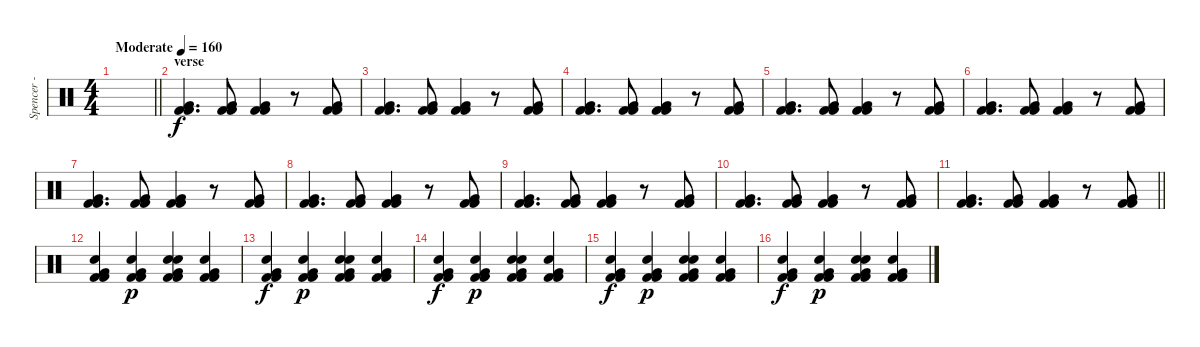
\track ("Spencer - Drums" "Spencer - ") {instrument percussion}
\staff {score}
\articulation defaults
\ts (4 4)
\tempo (160 "Moderate")
\clef neutral
\barLineRight lightlight
\ks c
|
\section ("" "verse")
("Very Low Tom (hit)" "Kick (hit) 2" "Kick (hit) 2").4{d} ("Very Low Tom (hit)" "Kick (hit) 2" "Kick (hit) 2").8 ("Very Low Tom (hit)" "Kick (hit) 2" "Kick (hit) 2").4 r.8 ("Very Low Tom (hit)" "Kick (hit) 2" "Kick (hit) 2").8 |
("Very Low Tom (hit)" "Kick (hit) 2" "Kick (hit) 2").4{d} ("Very Low Tom (hit)" "Kick (hit) 2" "Kick (hit) 2").8 ("Very Low Tom (hit)" "Kick (hit) 2" "Kick (hit) 2").4 r.8 ("Very Low Tom (hit)" "Kick (hit) 2" "Kick (hit) 2").8 |
("Very Low Tom (hit)" "Kick (hit) 2" "Kick (hit) 2").4{d} ("Very Low Tom (hit)" "Kick (hit) 2" "Kick (hit) 2").8 ("Very Low Tom (hit)" "Kick (hit) 2" "Kick (hit) 2").4 r.8 ("Very Low Tom (hit)" "Kick (hit) 2" "Kick (hit) 2").8 |
("Very Low Tom (hit)" "Kick (hit) 2" "Kick (hit) 2").4{d} ("Very Low Tom (hit)" "Kick (hit) 2" "Kick (hit) 2").8 ("Very Low Tom (hit)" "Kick (hit) 2" "Kick (hit) 2").4 r.8 ("Very Low Tom (hit)" "Kick (hit) 2" "Kick (hit) 2").8 |
("Very Low Tom (hit)" "Kick (hit) 2" "Kick (hit) 2").4{d} ("Very Low Tom (hit)" "Kick (hit) 2" "Kick (hit) 2").8 ("Very Low Tom (hit)" "Kick (hit) 2" "Kick (hit) 2").4 r.8 ("Very Low Tom (hit)" "Kick (hit) 2" "Kick (hit) 2").8 |
("Very Low Tom (hit)" "Kick (hit) 2" "Kick (hit) 2").4{d} ("Very Low Tom (hit)" "Kick (hit) 2" "Kick (hit) 2").8 ("Very Low Tom (hit)" "Kick (hit) 2" "Kick (hit) 2").4 r.8 ("Very Low Tom (hit)" "Kick (hit) 2" "Kick (hit) 2").8 |
("Very Low Tom (hit)" "Kick (hit) 2" "Kick (hit) 2").4{d} ("Very Low Tom (hit)" "Kick (hit) 2" "Kick (hit) 2").8 ("Very Low Tom (hit)" "Kick (hit) 2" "Kick (hit) 2").4 r.8 ("Very Low Tom (hit)" "Kick (hit) 2" "Kick (hit) 2").8 |
("Very Low Tom (hit)" "Kick (hit) 2" "Kick (hit) 2").4{d} ("Very Low Tom (hit)" "Kick (hit) 2" "Kick (hit) 2").8 ("Very Low Tom (hit)" "Kick (hit) 2" "Kick (hit) 2").4 r.8 ("Very Low Tom (hit)" "Kick (hit) 2" "Kick (hit) 2").8 |
("Very Low Tom (hit)" "Kick (hit) 2" "Kick (hit) 2").4{d} ("Very Low Tom (hit)" "Kick (hit) 2" "Kick (hit) 2").8 ("Very Low Tom (hit)" "Kick (hit) 2" "Kick (hit) 2").4 r.8 ("Very Low Tom (hit)" "Kick (hit) 2" "Kick (hit) 2").8 |
\barLineRight lightlight
("Very Low Tom (hit)" "Kick (hit) 2" "Kick (hit) 2").4{d} ("Very Low Tom (hit)" "Kick (hit) 2" "Kick (hit) 2").8 ("Very Low Tom (hit)" "Kick (hit) 2" "Kick (hit) 2").4 r.8 ("Very Low Tom (hit)" "Kick (hit) 2" "Kick (hit) 2").8 |
\section ("" "")
("Very Low Tom (hit)" "Kick (hit) 2" "Snare (hit) 2" "Kick (hit) 2").4 ("Very Low Tom (hit)" "Kick (hit) 2" "Snare (hit) 2" "Kick (hit) 2").4{dy p} ("Very Low Tom (hit)" "Hand Clap (hit)" "Kick (hit) 2" "Snare (hit) 2" "Kick (hit) 2").4 ("Very Low Tom (hit)" "Kick (hit) 2" "Snare (hit) 2" "Kick (hit) 2").4 |
("Very Low Tom (hit)" "Kick (hit) 2" "Snare (hit) 2" "Kick (hit) 2").4{dy f} ("Very Low Tom (hit)" "Kick (hit) 2" "Snare (hit) 2" "Kick (hit) 2").4{dy p} ("Very Low Tom (hit)" "Hand Clap (hit)" "Kick (hit) 2" "Snare (hit) 2" "Kick (hit) 2").4 ("Very Low Tom (hit)" "Kick (hit) 2" "Snare (hit) 2" "Kick (hit) 2").4 |
("Very Low Tom (hit)" "Kick (hit) 2" "Snare (hit) 2" "Kick (hit) 2").4{dy f} ("Very Low Tom (hit)" "Kick (hit) 2" "Snare (hit) 2" "Kick (hit) 2").4{dy p} ("Very Low Tom (hit)" "Hand Clap (hit)" "Kick (hit) 2" "Snare (hit) 2" "Kick (hit) 2").4 ("Very Low Tom (hit)" "Kick (hit) 2" "Snare (hit) 2" "Kick (hit) 2").4 |
("Very Low Tom (hit)" "Kick (hit) 2" "Snare (hit) 2" "Kick (hit) 2").4{dy f} ("Very Low Tom (hit)" "Kick (hit) 2" "Snare (hit) 2" "Kick (hit) 2").4{dy p} ("Very Low Tom (hit)" "Hand Clap (hit)" "Kick (hit) 2" "Snare (hit) 2" "Kick (hit) 2").4 ("Very Low Tom (hit)" "Kick (hit) 2" "Snare (hit) 2" "Kick (hit) 2").4 |
("Very Low Tom (hit)" "Kick (hit) 2" "Snare (hit) 2" "Kick (hit) 2").4{dy f} ("Very Low Tom (hit)" "Kick (hit) 2" "Snare (hit) 2" "Kick (hit) 2").4{dy p} ("Very Low Tom (hit)" "Hand Clap (hit)" "Kick (hit) 2" "Snare (hit) 2" "Kick (hit) 2").4 ("Very Low Tom (hit)" "Kick (hit) 2" "Snare (hit) 2" "Kick (hit) 2").4
